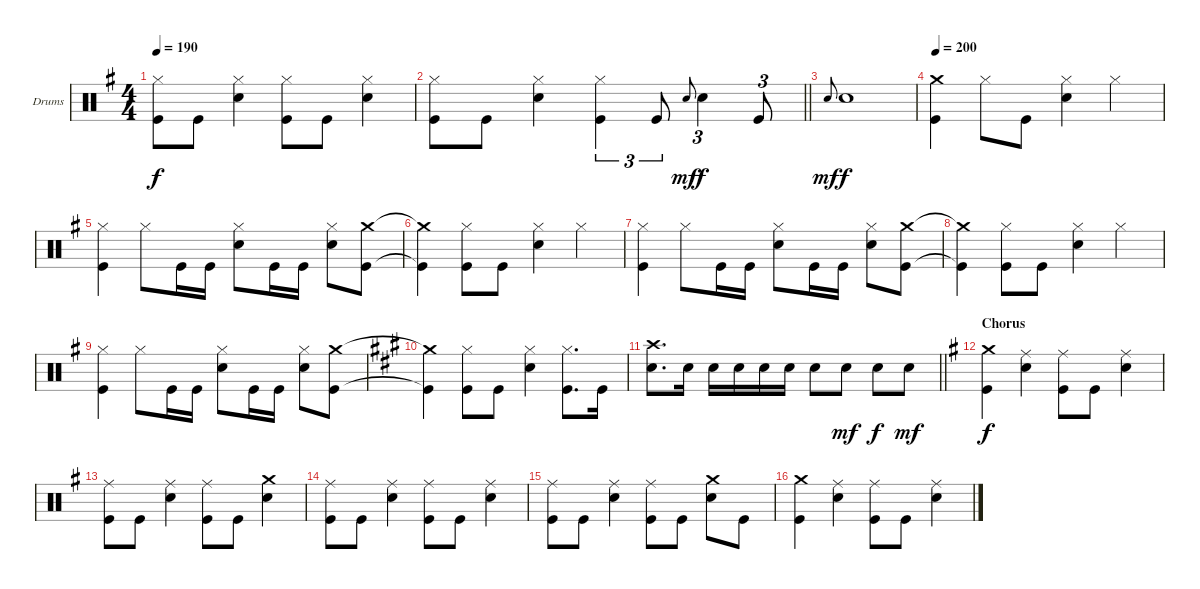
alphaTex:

\bracketExtendMode groupsimilarinstruments
\firstSystemTrackNameOrientation horizontal
\otherSystemsTrackNameOrientation horizontal
\track ("Drums" "Drums") {instrument percussion}
\staff {score}
\articulation defaults
\ts (4 4)
\tempo 190
\clef neutral
\ks g
("Kick (hit)" "Hi-Hat (closed)").8{dy f} "Kick (hit)".8 ("Snare (hit) 2" "Hi-Hat (closed)").4 ("Kick (hit)" "Hi-Hat (closed)").8 "Kick (hit)".8 ("Snare (hit) 2" "Hi-Hat (closed)").4 |
\barLineRight lightlight
("Kick (hit)" "Hi-Hat (closed)").8 "Kick (hit)".8 ("Snare (hit) 2" "Hi-Hat (closed)").4 ("Kick (hit)" "Hi-Hat (closed)").4{tu (3 2)} "Kick (hit)".8{tu (3 2)} "Snare (hit) 2".8{tu (3 2) gr onbeat dy mf} "Snare (hit) 2".4{tu (3 2) dy f} "Kick (hit)".8{tu (3 2)} |
"Snare (hit) 2".8{gr onbeat dy mf} "Snare (hit) 2".1{dy f} |
\tempo 200
("Crash medium (hit)" "Kick (hit)").4 "Hi-Hat (closed)".8 "Kick (hit)".8 ("Hi-Hat (closed)" "Snare (hit) 2").4 "Hi-Hat (closed)".4 |
("Kick (hit)" "Hi-Hat (closed)").4 "Hi-Hat (closed)".8 "Kick (hit)".16 "Kick (hit)".16 ("Snare (hit) 2" "Hi-Hat (closed)").8 "Kick (hit)".16 "Kick (hit)".16 ("Snare (hit) 2" "Hi-Hat (closed)").8 ("Crash medium (hit)" "Kick (hit)").8 |
("Crash medium (hit)"{t} "Kick (hit)"{t}).4 ("Kick (hit)" "Hi-Hat (closed)").8 "Kick (hit)".8 ("Hi-Hat (closed)" "Snare (hit) 2").4 "Hi-Hat (closed)".4 |
("Kick (hit)" "Hi-Hat (closed)").4 "Hi-Hat (closed)".8 "Kick (hit)".16 "Kick (hit)".16 ("Snare (hit) 2" "Hi-Hat (closed)").8 "Kick (hit)".16 "Kick (hit)".16 ("Snare (hit) 2" "Hi-Hat (closed)").8 ("Crash medium (hit)" "Kick (hit)").8 |
("Crash medium (hit)"{t} "Kick (hit)"{t}).4 ("Hi-Hat (closed)" "Kick (hit)").8 "Kick (hit)".8 ("Hi-Hat (closed)" "Snare (hit) 2").4 "Hi-Hat (closed)".4 |
("Kick (hit)" "Hi-Hat (closed)").4 "Hi-Hat (closed)".8 "Kick (hit)".16 "Kick (hit)".16 ("Snare (hit) 2" "Hi-Hat (closed)").8 "Kick (hit)".16 "Kick (hit)".16 ("Snare (hit) 2" "Hi-Hat (closed)").8 ("Crash medium (hit)" "Kick (hit)").8 |
\ks a
("Crash medium (hit)"{t} "Kick (hit)"{t}).4 ("Hi-Hat (closed)" "Kick (hit)").8 "Kick (hit)".8 ("Hi-Hat (closed)" "Snare (hit) 2").4 ("Hi-Hat (closed)" "Kick (hit)").8{d} "Kick (hit)".16 |
\barLineRight lightlight
("Snare (hit) 2" "Crash high (hit)").8{d} "Snare (hit) 2".16 "Snare (hit) 2".16 "Snare (hit) 2".16 "Snare (hit) 2".16 "Snare (hit) 2".16 "Snare (hit) 2".8 "Snare (hit) 2".8{dy mf} "Snare (hit) 2".8{dy f} "Snare (hit) 2".8{dy mf} |
\section ("" "Chorus")
\ks g
("Crash medium (hit)" "Kick (hit)").4{dy f} ("Ride (middle)" "Snare (hit) 2").4 ("Ride (middle)" "Kick (hit)").8 "Kick (hit)".8 ("Ride (middle)" "Snare (hit) 2").4 |
("Ride (middle)" "Kick (hit)").8 "Kick (hit)".8 ("Ride (middle)" "Snare (hit) 2").4 ("Ride (middle)" "Kick (hit)").8 "Kick (hit)".8 ("Crash medium (hit)" "Snare (hit) 2").4 |
("Ride (middle)" "Kick (hit)").8 "Kick (hit)".8 ("Ride (middle)" "Snare (hit) 2").4 ("Ride (middle)" "Kick (hit)").8 "Kick (hit)".8 ("Ride (middle)" "Snare (hit) 2").4 |
("Ride (middle)" "Kick (hit)").8 "Kick (hit)".8 ("Ride (middle)" "Snare (hit) 2").4 ("Ride (middle)" "Kick (hit)").8 "Kick (hit)".8 ("Snare (hit) 2" "Crash medium (hit)").8 "Kick (hit)".8 |
("Crash medium (hit)" "Kick (hit)").4 ("Ride (middle)" "Snare (hit) 2").4 ("Ride (middle)" "Kick (hit)").8 "Kick (hit)".8 ("Ride (middle)" "Snare (hit) 2").4
